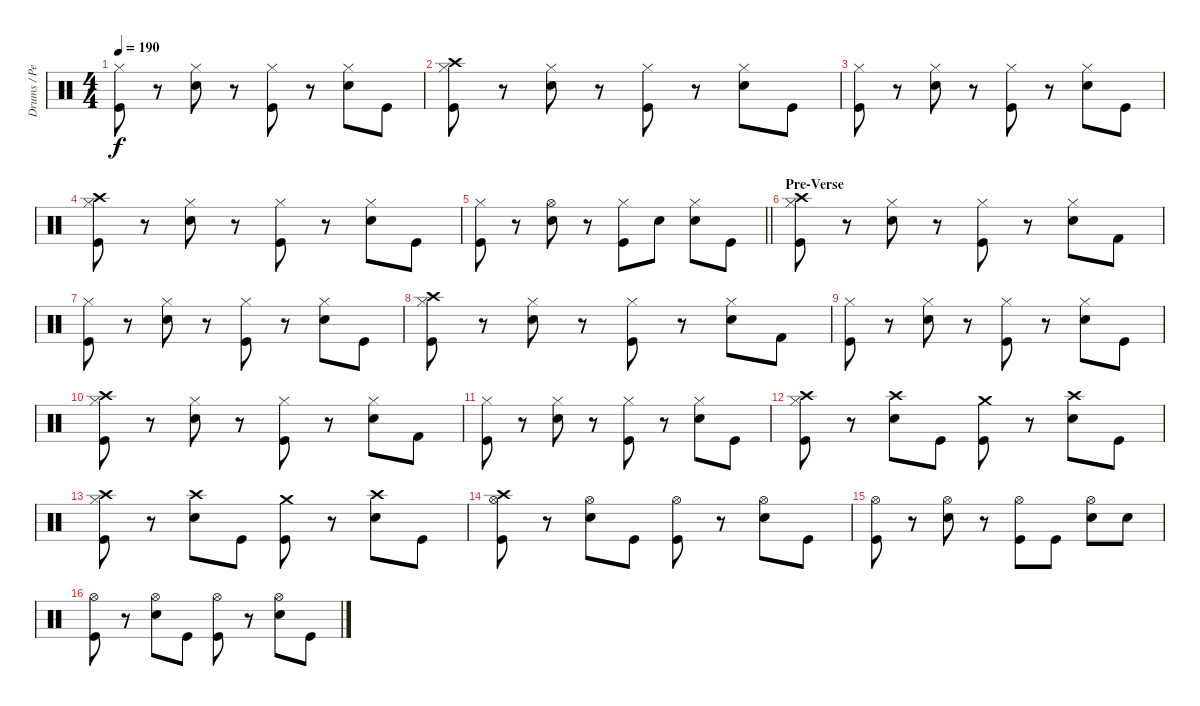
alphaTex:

\track ("Drums / Percussion" "Drums / Pe") {instrument percussion}
\staff {score}
\articulation defaults
\ts (4 4)
\tempo 190
\clef neutral
\ks c
("Hi-Hat (closed)" "Kick (hit)").8{dy f} r.8 ("Hi-Hat (closed)" "Electric Snare (hit)").8 r.8 ("Hi-Hat (closed)" "Kick (hit)").8 r.8 ("Hi-Hat (closed)" "Electric Snare (hit)").8 "Kick (hit)".8 |
("Hi-Hat (closed)" "Crash high (hit)" "Kick (hit)").8 r.8 ("Hi-Hat (closed)" "Electric Snare (hit)").8 r.8 ("Hi-Hat (closed)" "Kick (hit)").8 r.8 ("Hi-Hat (closed)" "Electric Snare (hit)").8 "Kick (hit)".8 |
("Hi-Hat (closed)" "Kick (hit)").8 r.8 ("Hi-Hat (closed)" "Electric Snare (hit)").8 r.8 ("Hi-Hat (closed)" "Kick (hit)").8 r.8 ("Hi-Hat (closed)" "Electric Snare (hit)").8 "Kick (hit)".8 |
("Hi-Hat (closed)" "Crash high (hit)" "Kick (hit)").8 r.8 ("Hi-Hat (closed)" "Electric Snare (hit)").8 r.8 ("Hi-Hat (closed)" "Kick (hit)").8 r.8 ("Hi-Hat (closed)" "Electric Snare (hit)").8 "Kick (hit)".8 |
\barLineRight lightlight
("Hi-Hat (closed)" "Kick (hit)").8 r.8 ("Hi-Hat (open)" "Electric Snare (hit)").8 r.8 ("Hi-Hat (closed)" "Kick (hit)").8 "Electric Snare (hit)".8 ("Hi-Hat (closed)" "Electric Snare (hit)").8 "Kick (hit)".8 |
\section ("" "Pre-Verse")
("Hi-Hat (closed)" "Crash high (hit)" "Kick (hit)").8 r.8 ("Hi-Hat (closed)" "Electric Snare (hit)").8 r.8 ("Hi-Hat (closed)" "Kick (hit)").8 r.8 ("Hi-Hat (closed)" "Electric Snare (hit)").8 "Kick (hit) 2".8 |
("Hi-Hat (closed)" "Kick (hit)").8 r.8 ("Hi-Hat (closed)" "Electric Snare (hit)").8 r.8 ("Hi-Hat (closed)" "Kick (hit)").8 r.8 ("Hi-Hat (closed)" "Electric Snare (hit)").8 "Kick (hit)".8 |
("Hi-Hat (closed)" "Crash high (hit)" "Kick (hit)").8 r.8 ("Hi-Hat (closed)" "Electric Snare (hit)").8 r.8 ("Hi-Hat (closed)" "Kick (hit)").8 r.8 ("Hi-Hat (closed)" "Electric Snare (hit)").8 "Kick (hit) 2".8 |
("Hi-Hat (closed)" "Kick (hit)").8 r.8 ("Hi-Hat (closed)" "Electric Snare (hit)").8 r.8 ("Hi-Hat (closed)" "Kick (hit)").8 r.8 ("Hi-Hat (closed)" "Electric Snare (hit)").8 "Kick (hit)".8 |
("Hi-Hat (closed)" "Crash high (hit)" "Kick (hit)").8 r.8 ("Hi-Hat (closed)" "Electric Snare (hit)").8 r.8 ("Hi-Hat (closed)" "Kick (hit)").8 r.8 ("Hi-Hat (closed)" "Electric Snare (hit)").8 "Kick (hit) 2".8 |
("Hi-Hat (closed)" "Kick (hit)").8 r.8 ("Hi-Hat (closed)" "Electric Snare (hit)").8 r.8 ("Hi-Hat (closed)" "Kick (hit)").8 r.8 ("Hi-Hat (closed)" "Electric Snare (hit)").8 "Kick (hit)".8 |
("Hi-Hat (closed)" "Crash high (hit)" "Kick (hit)").8 r.8 ("Crash high (hit)" "Electric Snare (hit)").8 "Kick (hit)".8 ("Crash medium (hit)" "Kick (hit)").8 r.8 ("Crash high (hit)" "Electric Snare (hit)").8 "Kick (hit)".8 |
("Hi-Hat (closed)" "Crash high (hit)" "Kick (hit)").8 r.8 ("Crash high (hit)" "Electric Snare (hit)").8 "Kick (hit)".8 ("Crash medium (hit)" "Kick (hit)").8 r.8 ("Crash high (hit)" "Electric Snare (hit)").8 "Kick (hit)".8 |
("Hi-Hat (open)" "Crash high (hit)" "Kick (hit)").8 r.8 ("Hi-Hat (open)" "Electric Snare (hit)").8 "Kick (hit)".8 ("Hi-Hat (open)" "Kick (hit)").8 r.8 ("Hi-Hat (open)" "Electric Snare (hit)").8 "Kick (hit)".8 |
("Hi-Hat (open)" "Kick (hit)").8 r.8 ("Hi-Hat (open)" "Electric Snare (hit)").8 r.8 ("Hi-Hat (open)" "Kick (hit)").8 "Kick (hit)".8 ("Hi-Hat (open)" "Electric Snare (hit)").8 "Electric Snare (hit)".8 |
("Hi-Hat (open)" "Kick (hit)").8 r.8 ("Hi-Hat (open)" "Electric Snare (hit)").8 "Kick (hit)".8 ("Hi-Hat (open)" "Kick (hit)").8 r.8 ("Hi-Hat (open)" "Electric Snare (hit)").8 "Kick (hit)".8
